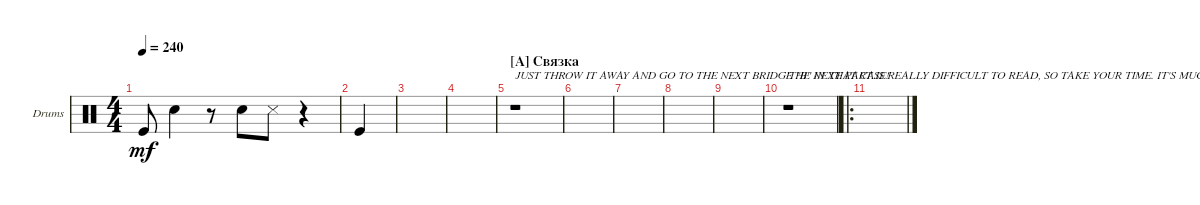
\defaultSystemsLayout 4
\bracketExtendMode groupsimilarinstruments
\firstSystemTrackNameOrientation horizontal
\otherSystemsTrackNameOrientation horizontal
\track ("Drumkit" "Drums") {instrument percussion}
\staff {score}
\articulation defaults
\ts (4 4)
\tempo 240
\clef neutral
\ks c "Kick (hit)".8{dy mf} "Snare (hit) 2".4
r.8 "Snare (hit) 2".8 "Snare (side stick) 3".8 r.4 |
"Kick (hit)".4 |
|
|
\section ("A" "Связка")
r.1{txt "JUST THROW IT AWAY AND GO TO THE NEXT BRIDGE \"B\" IN THAT CASE!"} |
|
|
|
|
r.1{txt "THE NEXT PART IS REALLY DIFFICULT TO READ, SO TAKE YOUR TIME. IT'S MUCH EASIER TO PLAY THAN IT SEEMS!"} |
\ro
